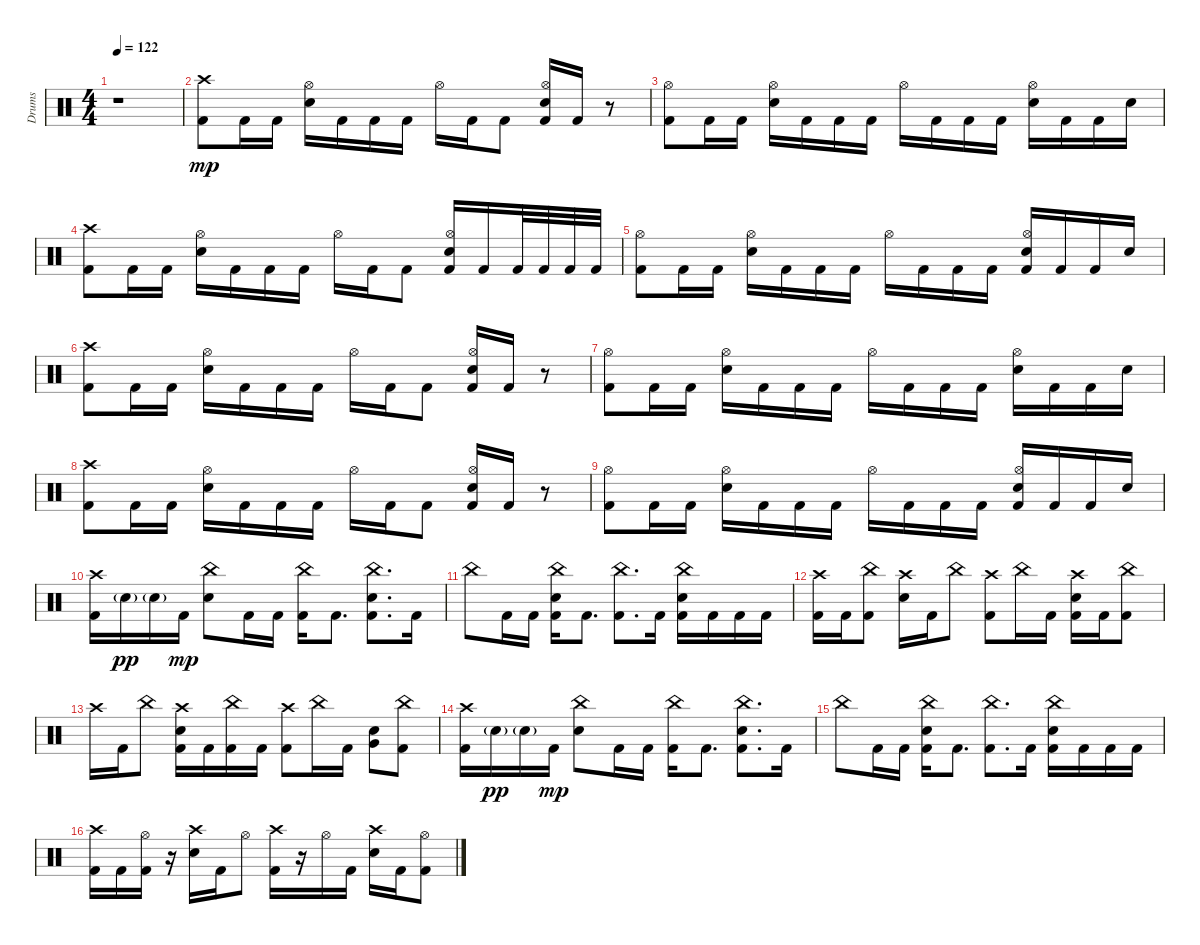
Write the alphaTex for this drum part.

\track ("Drums" "Drums") {instrument percussion}
\staff {score}
\articulation defaults
\ts (4 4)
\tempo 122
\clef neutral
\ks c
r.1{dy mf} |
("Crash high (hit)" "Kick (hit) 2").8{dy mp} "Kick (hit) 2".16 "Kick (hit) 2".16 ("Hi-Hat (open)" "Electric Snare (hit)").16 "Kick (hit) 2".16 "Kick (hit) 2".16 "Kick (hit) 2".16 "Hi-Hat (open)".16 "Kick (hit) 2".16 "Kick (hit) 2".8 ("Hi-Hat (open)" "Electric Snare (hit)" "Kick (hit) 2").16 "Kick (hit) 2".16 r.8 |
("Hi-Hat (open)" "Kick (hit) 2").8 "Kick (hit) 2".16 "Kick (hit) 2".16 ("Hi-Hat (open)" "Electric Snare (hit)").16 "Kick (hit) 2".16 "Kick (hit) 2".16 "Kick (hit) 2".16 "Hi-Hat (open)".16 "Kick (hit) 2".16 "Kick (hit) 2".16 "Kick (hit) 2".16 ("Hi-Hat (open)" "Electric Snare (hit)").16 "Kick (hit) 2".16 "Kick (hit) 2".16 "Electric Snare (hit)".16 |
("Crash high (hit)" "Kick (hit) 2").8 "Kick (hit) 2".16 "Kick (hit) 2".16 ("Hi-Hat (open)" "Electric Snare (hit)").16 "Kick (hit) 2".16 "Kick (hit) 2".16 "Kick (hit) 2".16 "Hi-Hat (open)".16 "Kick (hit) 2".16 "Kick (hit) 2".8 ("Hi-Hat (open)" "Electric Snare (hit)" "Kick (hit) 2").16 "Kick (hit) 2".16 "Kick (hit) 2".32 "Kick (hit) 2".32 "Kick (hit) 2".32 "Kick (hit) 2".32 |
("Hi-Hat (open)" "Kick (hit) 2").8 "Kick (hit) 2".16 "Kick (hit) 2".16 ("Hi-Hat (open)" "Electric Snare (hit)").16 "Kick (hit) 2".16 "Kick (hit) 2".16 "Kick (hit) 2".16 "Hi-Hat (open)".16 "Kick (hit) 2".16 "Kick (hit) 2".16 "Kick (hit) 2".16 ("Hi-Hat (open)" "Electric Snare (hit)" "Kick (hit) 2").16 "Kick (hit) 2".16 "Kick (hit) 2".16 "Electric Snare (hit)".16 |
("Crash high (hit)" "Kick (hit) 2").8 "Kick (hit) 2".16 "Kick (hit) 2".16 ("Hi-Hat (open)" "Electric Snare (hit)").16 "Kick (hit) 2".16 "Kick (hit) 2".16 "Kick (hit) 2".16 "Hi-Hat (open)".16 "Kick (hit) 2".16 "Kick (hit) 2".8 ("Hi-Hat (open)" "Electric Snare (hit)" "Kick (hit) 2").16 "Kick (hit) 2".16 r.8 |
("Hi-Hat (open)" "Kick (hit) 2").8 "Kick (hit) 2".16 "Kick (hit) 2".16 ("Hi-Hat (open)" "Electric Snare (hit)").16 "Kick (hit) 2".16 "Kick (hit) 2".16 "Kick (hit) 2".16 "Hi-Hat (open)".16 "Kick (hit) 2".16 "Kick (hit) 2".16 "Kick (hit) 2".16 ("Hi-Hat (open)" "Electric Snare (hit)").16 "Kick (hit) 2".16 "Kick (hit) 2".16 "Electric Snare (hit)".16 |
("Crash high (hit)" "Kick (hit) 2").8 "Kick (hit) 2".16 "Kick (hit) 2".16 ("Hi-Hat (open)" "Electric Snare (hit)").16 "Kick (hit) 2".16 "Kick (hit) 2".16 "Kick (hit) 2".16 "Hi-Hat (open)".16 "Kick (hit) 2".16 "Kick (hit) 2".8 ("Hi-Hat (open)" "Electric Snare (hit)" "Kick (hit) 2").16 "Kick (hit) 2".16 r.8 |
("Hi-Hat (open)" "Kick (hit) 2").8 "Kick (hit) 2".16 "Kick (hit) 2".16 ("Hi-Hat (open)" "Electric Snare (hit)").16 "Kick (hit) 2".16 "Kick (hit) 2".16 "Kick (hit) 2".16 "Hi-Hat (open)".16 "Kick (hit) 2".16 "Kick (hit) 2".16 "Kick (hit) 2".16 ("Hi-Hat (open)" "Electric Snare (hit)" "Kick (hit) 2").16 "Kick (hit) 2".16 "Kick (hit) 2".16 "Electric Snare (hit)".16 |
("Crash high (hit)" "Kick (hit) 2").16 "Electric Snare (hit)"{g}.16{dy pp} "Electric Snare (hit)"{g}.16 "Kick (hit) 2".16{dy mp} ("China (hit)" "Electric Snare (hit)").8 "Kick (hit) 2".16 "Kick (hit) 2".16 ("China (hit)" "Kick (hit) 2").16 "Kick (hit) 2".8{d} ("Electric Snare (hit)" "China (hit)" "Kick (hit) 2").8{d} "Kick (hit) 2".16 |
"China (hit)".8 "Kick (hit) 2".16 "Kick (hit) 2".16 ("China (hit)" "Electric Snare (hit)" "Kick (hit) 2").16 "Kick (hit) 2".8{d} ("China (hit)" "Kick (hit) 2").8{d} "Kick (hit) 2".16 ("China (hit)" "Electric Snare (hit)" "Kick (hit) 2").16 "Kick (hit) 2".16 "Kick (hit) 2".16 "Kick (hit) 2".16 |
("Crash high (hit)" "Kick (hit) 2").16 "Kick (hit) 2".16 ("China (hit)" "Kick (hit) 2").8 ("Crash high (hit)" "Electric Snare (hit)").16 "Kick (hit) 2".16 "China (hit)".8 ("Crash high (hit)" "Kick (hit) 2").8 "China (hit)".16 "Kick (hit) 2".16 ("Crash high (hit)" "Electric Snare (hit)" "Kick (hit) 2").16 "Kick (hit) 2".16 ("China (hit)" "Kick (hit) 2").8 |
"Crash high (hit)".16 "Kick (hit) 2".16 "China (hit)".8 ("Crash high (hit)" "Electric Snare (hit)" "Kick (hit) 2").16 "Kick (hit) 2".16 ("China (hit)" "Kick (hit) 2").16 "Kick (hit) 2".16 ("Crash high (hit)" "Kick (hit) 2").8 "China (hit)".16 "Kick (hit) 2".16 ("Very Low Tom (hit)" "Electric Snare (hit)").8 ("China (hit)" "Kick (hit) 2").8 |
("Crash high (hit)" "Kick (hit) 2").16 "Electric Snare (hit)"{g}.16{dy pp} "Electric Snare (hit)"{g}.16 "Kick (hit) 2".16{dy mp} ("China (hit)" "Electric Snare (hit)").8 "Kick (hit) 2".16 "Kick (hit) 2".16 ("China (hit)" "Kick (hit) 2").16 "Kick (hit) 2".8{d} ("Electric Snare (hit)" "China (hit)" "Kick (hit) 2").8{d} "Kick (hit) 2".16 |
"China (hit)".8 "Kick (hit) 2".16 "Kick (hit) 2".16 ("China (hit)" "Electric Snare (hit)" "Kick (hit) 2").16 "Kick (hit) 2".8{d} ("China (hit)" "Kick (hit) 2").8{d} "Kick (hit) 2".16 ("China (hit)" "Electric Snare (hit)" "Kick (hit) 2").16 "Kick (hit) 2".16 "Kick (hit) 2".16 "Kick (hit) 2".16 |
("Crash high (hit)" "Kick (hit) 2").16 "Kick (hit) 2".16 ("Hi-Hat (open)" "Kick (hit) 2").16 r.16 ("Crash high (hit)" "Electric Snare (hit)").16 "Kick (hit) 2".16 "Hi-Hat (open)".8 ("Crash high (hit)" "Kick (hit) 2").16 r.16 "Hi-Hat (open)".16 "Kick (hit) 2".16 ("Crash high (hit)" "Electric Snare (hit)").16 "Kick (hit) 2".16 ("Hi-Hat (open)" "Kick (hit) 2").8
